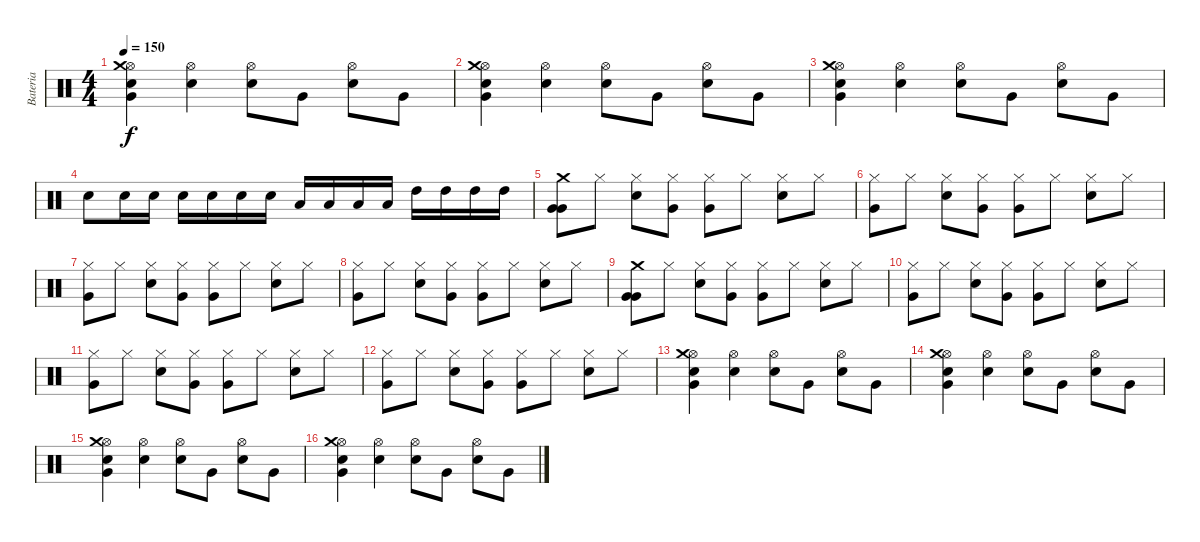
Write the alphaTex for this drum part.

\track ("Bateria" "Bateria") {instrument percussion}
\staff {score}
\articulation defaults
\ts (4 4)
\tempo 150
\clef neutral
\ks c
("Hi-Hat (open)" "Very Low Tom (hit)" "Electric Snare (hit)" "Crash medium (hit)").4{dy f} ("Hi-Hat (open)" "Electric Snare (hit)").4 ("Hi-Hat (open)" "Electric Snare (hit)").8 "Very Low Tom (hit)".8 ("Hi-Hat (open)" "Electric Snare (hit)").8 "Very Low Tom (hit)".8 |
("Hi-Hat (open)" "Very Low Tom (hit)" "Electric Snare (hit)" "Crash medium (hit)").4 ("Hi-Hat (open)" "Electric Snare (hit)").4 ("Hi-Hat (open)" "Electric Snare (hit)").8 "Very Low Tom (hit)".8 ("Hi-Hat (open)" "Electric Snare (hit)").8 "Very Low Tom (hit)".8 |
("Hi-Hat (open)" "Very Low Tom (hit)" "Electric Snare (hit)" "Crash medium (hit)").4 ("Hi-Hat (open)" "Electric Snare (hit)").4 ("Hi-Hat (open)" "Electric Snare (hit)").8 "Very Low Tom (hit)".8 ("Hi-Hat (open)" "Electric Snare (hit)").8 "Very Low Tom (hit)".8 |
"Electric Snare (hit)".8 "Electric Snare (hit)".16 "Electric Snare (hit)".16 "Electric Snare (hit)".16 "Electric Snare (hit)".16 "Electric Snare (hit)".16 "Electric Snare (hit)".16 "Low Tom (hit)".16 "Low Tom (hit)".16 "Low Tom (hit)".16 "Low Tom (hit)".16 "High Tom (hit)".16 "High Tom (hit)".16 "High Tom (hit)".16 "High Tom (hit)".16 |
("Very Low Tom (hit)" "Very Low Tom (hit)" "Crash medium (hit)").8 "Hi-Hat (closed)".8 ("Hi-Hat (closed)" "Electric Snare (hit)").8 ("Hi-Hat (closed)" "Very Low Tom (hit)").8 ("Hi-Hat (closed)" "Very Low Tom (hit)").8 "Hi-Hat (closed)".8 ("Hi-Hat (closed)" "Electric Snare (hit)").8 "Hi-Hat (closed)".8 |
("Hi-Hat (closed)" "Very Low Tom (hit)").8 "Hi-Hat (closed)".8 ("Hi-Hat (closed)" "Electric Snare (hit)").8 ("Hi-Hat (closed)" "Very Low Tom (hit)").8 ("Hi-Hat (closed)" "Very Low Tom (hit)").8 "Hi-Hat (closed)".8 ("Hi-Hat (closed)" "Electric Snare (hit)").8 "Hi-Hat (closed)".8 |
("Hi-Hat (closed)" "Very Low Tom (hit)").8 "Hi-Hat (closed)".8 ("Hi-Hat (closed)" "Electric Snare (hit)").8 ("Hi-Hat (closed)" "Very Low Tom (hit)").8 ("Hi-Hat (closed)" "Very Low Tom (hit)").8 "Hi-Hat (closed)".8 ("Hi-Hat (closed)" "Electric Snare (hit)").8 "Hi-Hat (closed)".8 |
("Hi-Hat (closed)" "Very Low Tom (hit)").8 "Hi-Hat (closed)".8 ("Hi-Hat (closed)" "Electric Snare (hit)").8 ("Hi-Hat (closed)" "Very Low Tom (hit)").8 ("Hi-Hat (closed)" "Very Low Tom (hit)").8 "Hi-Hat (closed)".8 ("Hi-Hat (closed)" "Electric Snare (hit)").8 "Hi-Hat (closed)".8 |
("Very Low Tom (hit)" "Very Low Tom (hit)" "Crash medium (hit)").8 "Hi-Hat (closed)".8 ("Hi-Hat (closed)" "Electric Snare (hit)").8 ("Hi-Hat (closed)" "Very Low Tom (hit)").8 ("Hi-Hat (closed)" "Very Low Tom (hit)").8 "Hi-Hat (closed)".8 ("Hi-Hat (closed)" "Electric Snare (hit)").8 "Hi-Hat (closed)".8 |
("Hi-Hat (closed)" "Very Low Tom (hit)").8 "Hi-Hat (closed)".8 ("Hi-Hat (closed)" "Electric Snare (hit)").8 ("Hi-Hat (closed)" "Very Low Tom (hit)").8 ("Hi-Hat (closed)" "Very Low Tom (hit)").8 "Hi-Hat (closed)".8 ("Hi-Hat (closed)" "Electric Snare (hit)").8 "Hi-Hat (closed)".8 |
("Hi-Hat (closed)" "Very Low Tom (hit)").8 "Hi-Hat (closed)".8 ("Hi-Hat (closed)" "Electric Snare (hit)").8 ("Hi-Hat (closed)" "Very Low Tom (hit)").8 ("Hi-Hat (closed)" "Very Low Tom (hit)").8 "Hi-Hat (closed)".8 ("Hi-Hat (closed)" "Electric Snare (hit)").8 "Hi-Hat (closed)".8 |
("Hi-Hat (closed)" "Very Low Tom (hit)").8 "Hi-Hat (closed)".8 ("Hi-Hat (closed)" "Electric Snare (hit)").8 ("Hi-Hat (closed)" "Very Low Tom (hit)").8 ("Hi-Hat (closed)" "Very Low Tom (hit)").8 "Hi-Hat (closed)".8 ("Hi-Hat (closed)" "Electric Snare (hit)").8 "Hi-Hat (closed)".8 |
("Hi-Hat (open)" "Very Low Tom (hit)" "Electric Snare (hit)" "Crash medium (hit)").4 ("Hi-Hat (open)" "Electric Snare (hit)").4 ("Hi-Hat (open)" "Electric Snare (hit)").8 "Very Low Tom (hit)".8 ("Hi-Hat (open)" "Electric Snare (hit)").8 "Very Low Tom (hit)".8 |
("Hi-Hat (open)" "Very Low Tom (hit)" "Electric Snare (hit)" "Crash medium (hit)").4 ("Hi-Hat (open)" "Electric Snare (hit)").4 ("Hi-Hat (open)" "Electric Snare (hit)").8 "Very Low Tom (hit)".8 ("Hi-Hat (open)" "Electric Snare (hit)").8 "Very Low Tom (hit)".8 |
("Hi-Hat (open)" "Very Low Tom (hit)" "Electric Snare (hit)" "Crash medium (hit)").4 ("Hi-Hat (open)" "Electric Snare (hit)").4 ("Hi-Hat (open)" "Electric Snare (hit)").8 "Very Low Tom (hit)".8 ("Hi-Hat (open)" "Electric Snare (hit)").8 "Very Low Tom (hit)".8 |
("Hi-Hat (open)" "Very Low Tom (hit)" "Electric Snare (hit)" "Crash medium (hit)").4 ("Hi-Hat (open)" "Electric Snare (hit)").4 ("Hi-Hat (open)" "Electric Snare (hit)").8 "Very Low Tom (hit)".8 ("Hi-Hat (open)" "Electric Snare (hit)").8 "Very Low Tom (hit)".8
